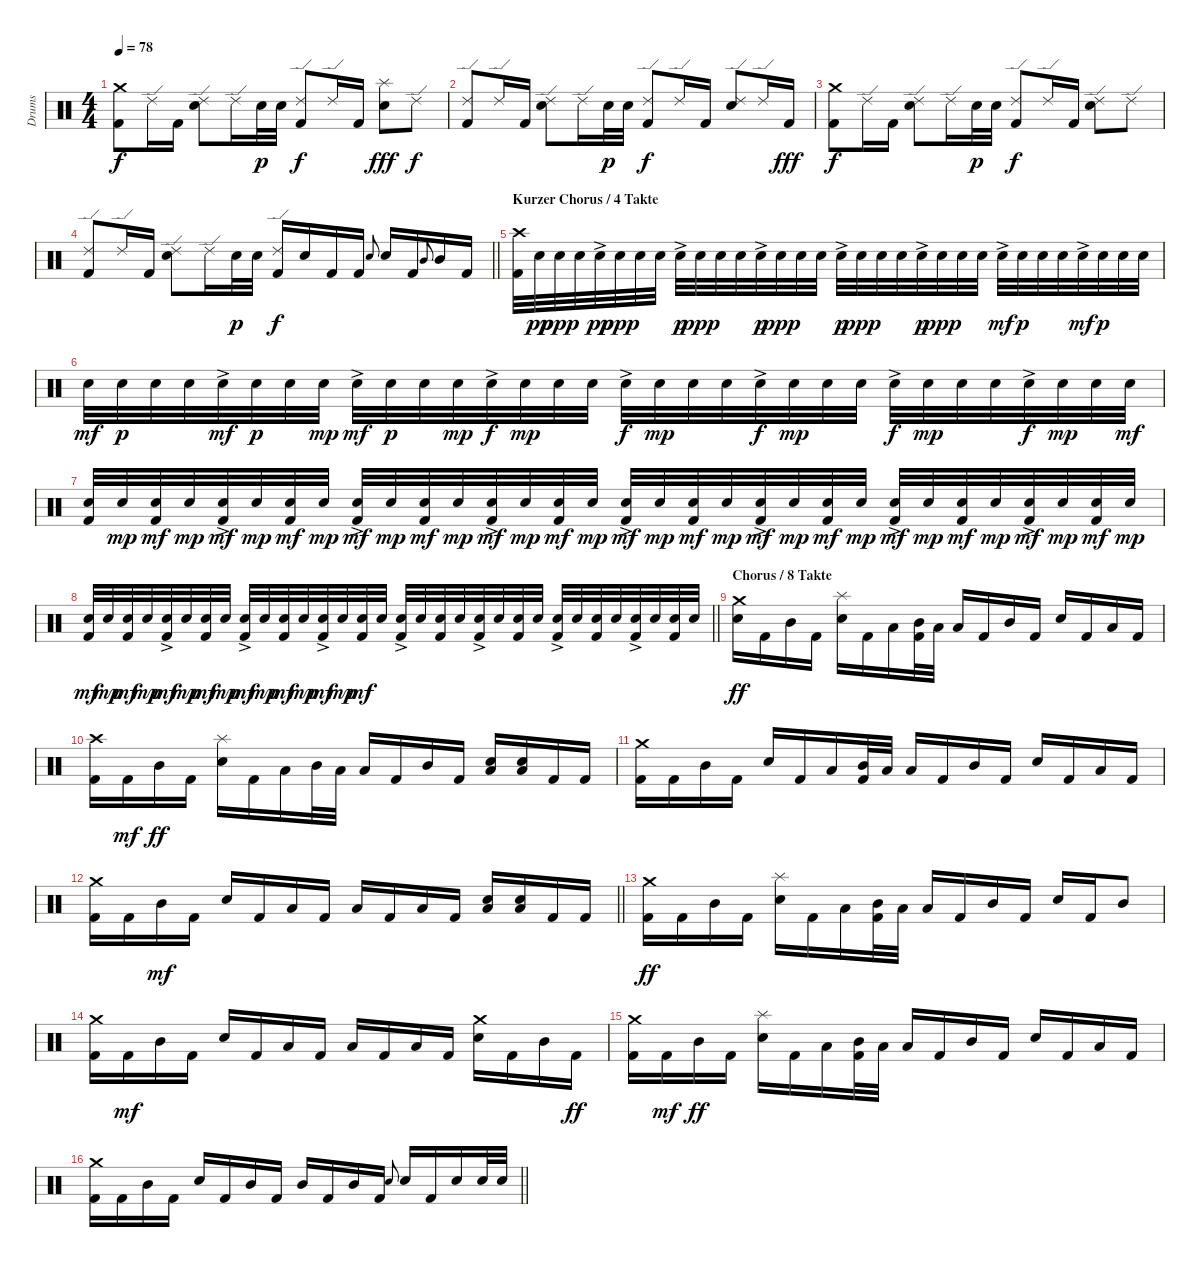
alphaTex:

\track ("Drums" "Drums") {instrument percussion}
\staff {score}
\articulation defaults
\ts (4 4)
\tempo 78
\clef neutral
\ks c
("Crash medium (hit)" "Kick (hit) 2").8{dy f} "Ride (edge) 2".16 "Kick (hit) 2".16 ("Ride (edge) 2" "Electric Snare (hit)").8 "Ride (edge) 2".16 "Electric Snare (hit)".32{dy p} "Electric Snare (hit)".32 ("Ride (edge) 2" "Kick (hit) 2").8{dy f} "Ride (edge) 2".16 "Kick (hit) 2".16 ("Splash (hit)" "Electric Snare (hit)").8{dy fff} "Ride (edge) 2".8{dy f} |
("Ride (edge) 2" "Kick (hit) 2").8 "Ride (edge) 2".16 "Kick (hit) 2".16 ("Ride (edge) 2" "Electric Snare (hit)").8 "Ride (edge) 2".16 "Electric Snare (hit)".32{dy p} "Electric Snare (hit)".32 ("Ride (edge) 2" "Kick (hit) 2").8{dy f} "Ride (edge) 2".16 "Kick (hit) 2".16 ("Ride (edge) 2" "Electric Snare (hit)").8 "Ride (edge) 2".16 "Kick (hit) 2".16{dy fff} |
("Crash medium (hit)" "Kick (hit) 2").8{dy f} "Ride (edge) 2".16 "Kick (hit) 2".16 ("Ride (edge) 2" "Electric Snare (hit)").8 "Ride (edge) 2".16 "Electric Snare (hit)".32{dy p} "Electric Snare (hit)".32 ("Ride (edge) 2" "Kick (hit) 2").8{dy f} "Ride (edge) 2".16 "Kick (hit) 2".16 ("Ride (edge) 2" "Electric Snare (hit)").8 "Ride (edge) 2".8 |
\barLineRight lightlight
("Ride (edge) 2" "Kick (hit) 2").8 "Ride (edge) 2".16 "Kick (hit) 2".16 ("Ride (edge) 2" "Electric Snare (hit)").8 "Ride (edge) 2".16 "Electric Snare (hit)".32{dy p} "Electric Snare (hit)".32 ("Ride (edge) 2" "Kick (hit) 2").16{dy f} "Electric Snare (hit)".16 "Kick (hit) 2".16 "Kick (hit) 2".16 "Electric Snare (hit)".8{gr onbeat} "Electric Snare (hit)".16 "Kick (hit) 2".16 "Mid Tom (hit)".8{gr onbeat} "Mid Tom (hit)".16 "Kick (hit) 2".16 |
\section ("" "Kurzer Chorus / 4 Takte")
("Crash high (hit)" "Kick (hit) 2").32 "Electric Snare (hit)".32{dy pp} "Electric Snare (hit)".32{dy ppp} "Electric Snare (hit)".32 "Electric Snare (hit)"{ac}.32{dy pp} "Electric Snare (hit)".32{dy ppp} "Electric Snare (hit)".32 "Electric Snare (hit)".32 "Electric Snare (hit)"{ac}.32{dy p} "Electric Snare (hit)".32{dy ppp} "Electric Snare (hit)".32 "Electric Snare (hit)".32 "Electric Snare (hit)"{ac}.32{dy p volume 8} "Electric Snare (hit)".32{dy ppp} "Electric Snare (hit)".32 "Electric Snare (hit)".32 "Electric Snare (hit)"{ac}.32{dy p} "Electric Snare (hit)".32{dy ppp} "Electric Snare (hit)".32 "Electric Snare (hit)".32 "Electric Snare (hit)"{ac}.32{dy p} "Electric Snare (hit)".32{dy ppp} "Electric Snare (hit)".32 "Electric Snare (hit)".32 "Electric Snare (hit)"{ac}.32{dy mf} "Electric Snare (hit)".32{dy p} "Electric Snare (hit)".32 "Electric Snare (hit)".32 "Electric Snare (hit)"{ac}.32{dy mf} "Electric Snare (hit)".32{dy p} "Electric Snare (hit)".32 "Electric Snare (hit)".32 |
"Electric Snare (hit)".32{dy mf volume 16} "Electric Snare (hit)".32{dy p} "Electric Snare (hit)".32 "Electric Snare (hit)".32 "Electric Snare (hit)"{ac}.32{dy mf} "Electric Snare (hit)".32{dy p} "Electric Snare (hit)".32 "Electric Snare (hit)".32{dy mp} "Electric Snare (hit)"{ac}.32{dy mf} "Electric Snare (hit)".32{dy p} "Electric Snare (hit)".32 "Electric Snare (hit)".32{dy mp} "Electric Snare (hit)"{ac}.32{dy f} "Electric Snare (hit)".32{dy mp} "Electric Snare (hit)".32 "Electric Snare (hit)".32 "Electric Snare (hit)"{ac}.32{dy f} "Electric Snare (hit)".32{dy mp} "Electric Snare (hit)".32 "Electric Snare (hit)".32 "Electric Snare (hit)"{ac}.32{dy f} "Electric Snare (hit)".32{dy mp} "Electric Snare (hit)".32 "Electric Snare (hit)".32 "Electric Snare (hit)"{ac}.32{dy f} "Electric Snare (hit)".32{dy mp} "Electric Snare (hit)".32 "Electric Snare (hit)".32 "Electric Snare (hit)"{ac}.32{dy f} "Electric Snare (hit)".32{dy mp} "Electric Snare (hit)".32 "Electric Snare (hit)".32{dy mf} |
("Electric Snare (hit)" "Kick (hit) 2").32 "Electric Snare (hit)".32{dy mp} ("Electric Snare (hit)" "Kick (hit) 2").32{dy mf} "Electric Snare (hit)".32{dy mp} ("Electric Snare (hit)"{ac} "Kick (hit) 2").32{dy mf} "Electric Snare (hit)".32{dy mp} ("Electric Snare (hit)" "Kick (hit) 2").32{dy mf} "Electric Snare (hit)".32{dy mp} ("Electric Snare (hit)"{ac} "Kick (hit) 2").32{dy mf} "Electric Snare (hit)".32{dy mp} ("Electric Snare (hit)" "Kick (hit) 2").32{dy mf} "Electric Snare (hit)".32{dy mp} ("Electric Snare (hit)"{ac} "Kick (hit) 2").32{dy mf} "Electric Snare (hit)".32{dy mp} ("Electric Snare (hit)" "Kick (hit) 2").32{dy mf} "Electric Snare (hit)".32{dy mp} ("Electric Snare (hit)"{ac} "Kick (hit) 2").32{dy mf} "Electric Snare (hit)".32{dy mp} ("Electric Snare (hit)" "Kick (hit) 2").32{dy mf} "Electric Snare (hit)".32{dy mp} ("Electric Snare (hit)"{ac} "Kick (hit) 2").32{dy mf} "Electric Snare (hit)".32{dy mp} ("Electric Snare (hit)" "Kick (hit) 2").32{dy mf} "Electric Snare (hit)".32{dy mp} ("Electric Snare (hit)"{ac} "Kick (hit) 2").32{dy mf} "Electric Snare (hit)".32{dy mp} ("Electric Snare (hit)" "Kick (hit) 2").32{dy mf} "Electric Snare (hit)".32{dy mp} ("Electric Snare (hit)"{ac} "Kick (hit) 2").32{dy mf} "Electric Snare (hit)".32{dy mp} ("Electric Snare (hit)" "Kick (hit) 2").32{dy mf} "Electric Snare (hit)".32{dy mp} |
\barLineRight lightlight
("Electric Snare (hit)" "Kick (hit) 2").32{dy mf} "Electric Snare (hit)".32{dy mp} ("Electric Snare (hit)" "Kick (hit) 2").32{dy mf} "Electric Snare (hit)".32{dy mp} ("Electric Snare (hit)"{ac} "Kick (hit) 2").32{dy mf} "Electric Snare (hit)".32{dy mp} ("Electric Snare (hit)" "Kick (hit) 2").32{dy mf} "Electric Snare (hit)".32{dy mp} ("Electric Snare (hit)"{ac} "Kick (hit) 2").32{dy mf} "Electric Snare (hit)".32{dy mp} ("Electric Snare (hit)" "Kick (hit) 2").32{dy mf} "Electric Snare (hit)".32{dy mp} ("Electric Snare (hit)"{ac} "Kick (hit) 2").32{dy mf} "Electric Snare (hit)".32{dy mp} ("Electric Snare (hit)" "Kick (hit) 2").32{dy mf} "Electric Snare (hit)".32 ("Electric Snare (hit)"{ac} "Kick (hit) 2").32 "Electric Snare (hit)".32 ("Electric Snare (hit)" "Kick (hit) 2").32 "Electric Snare (hit)".32 ("Electric Snare (hit)"{ac} "Kick (hit) 2").32 "Electric Snare (hit)".32 ("Electric Snare (hit)" "Kick (hit) 2").32 "Electric Snare (hit)".32 ("Electric Snare (hit)"{ac} "Kick (hit) 2").32 "Electric Snare (hit)".32 ("Electric Snare (hit)" "Kick (hit) 2").32 "Electric Snare (hit)".32 ("Electric Snare (hit)"{ac} "Kick (hit) 2").32 "Electric Snare (hit)".32 ("Electric Snare (hit)" "Kick (hit) 2").32 "Electric Snare (hit)".32 |
\section ("" "Chorus / 8 Takte")
("Crash medium (hit)" "Electric Snare (hit)").16{dy ff} "Kick (hit) 2".16 "Mid Tom (hit)".16 "Kick (hit) 2".16 ("Splash (hit)" "Electric Snare (hit)").16 "Kick (hit) 2".16 "Low Tom (hit)".16 ("Mid Tom (hit)" "Kick (hit) 2").32 "Low Tom (hit)".32 "Low Tom (hit)".16 "Kick (hit) 2".16 "Mid Tom (hit)".16 "Kick (hit) 2".16 "Electric Snare (hit)".16 "Kick (hit) 2".16 "Low Tom (hit)".16 "Kick (hit) 2".16 |
("Crash high (hit)" "Kick (hit) 2").16 "Kick (hit) 2".16{dy mf} "Mid Tom (hit)".16{dy ff} "Kick (hit) 2".16 ("Splash (hit)" "Electric Snare (hit)").16 "Kick (hit) 2".16 "Low Tom (hit)".16 "Mid Tom (hit)".32 "Low Tom (hit)".32 "Low Tom (hit)".16 "Kick (hit) 2".16 "Mid Tom (hit)".16 "Kick (hit) 2".16 ("Low Floor Tom (hit)" "Electric Snare (hit)").16 ("Low Floor Tom (hit)" "Electric Snare (hit)").16 "Kick (hit) 2".16 "Kick (hit) 2".16 |
("Crash medium (hit)" "Kick (hit) 2").16 "Kick (hit) 2".16 "Mid Tom (hit)".16 "Kick (hit) 2".16 "Electric Snare (hit)".16 "Kick (hit) 2".16 "Low Tom (hit)".16 ("Mid Tom (hit)" "Kick (hit) 2").32 "Low Tom (hit)".32 "Low Tom (hit)".16 "Kick (hit) 2".16 "Mid Tom (hit)".16 "Kick (hit) 2".16 "Electric Snare (hit)".16 "Kick (hit) 2".16 "Low Tom (hit)".16 "Kick (hit) 2".16 |
\barLineRight lightlight
("Crash medium (hit)" "Kick (hit) 2").16 "Kick (hit) 2".16 "Mid Tom (hit)".16{dy mf} "Kick (hit) 2".16 "Electric Snare (hit)".16 "Kick (hit) 2".16 "Low Tom (hit)".16 "Kick (hit) 2".16 "Low Tom (hit)".16 "Kick (hit) 2".16 "Low Tom (hit)".16 "Kick (hit) 2".16 ("Electric Snare (hit)" "Low Floor Tom (hit)").16 ("Electric Snare (hit)" "Low Floor Tom (hit)").16 "Kick (hit) 2".16 "Kick (hit) 2".16 |
("Crash medium (hit)" "Kick (hit) 2").16{dy ff} "Kick (hit) 2".16 "Mid Tom (hit)".16 "Kick (hit) 2".16 ("Splash (hit)" "Electric Snare (hit)").16 "Kick (hit) 2".16 "Low Tom (hit)".16 ("Mid Tom (hit)" "Kick (hit) 2").32 "Low Tom (hit)".32 "Low Tom (hit)".16 "Kick (hit) 2".16 "Mid Tom (hit)".16 "Kick (hit) 2".16 "Electric Snare (hit)".16 "Kick (hit) 2".16 "Mid Tom (hit)".8 |
("Crash medium (hit)" "Kick (hit) 2").16 "Kick (hit) 2".16{dy mf} "Mid Tom (hit)".16 "Kick (hit) 2".16 "Electric Snare (hit)".16 "Kick (hit) 2".16 "Low Tom (hit)".16 "Kick (hit) 2".16 "Low Tom (hit)".16 "Kick (hit) 2".16 "Low Tom (hit)".16 "Kick (hit) 2".16 ("Crash medium (hit)" "Electric Snare (hit)").16 "Kick (hit) 2".16 "Mid Tom (hit)".16 "Kick (hit) 2".16{dy ff} |
("Crash medium (hit)" "Kick (hit) 2").16 "Kick (hit) 2".16{dy mf} "Mid Tom (hit)".16{dy ff} "Kick (hit) 2".16 ("Splash (hit)" "Electric Snare (hit)").16 "Kick (hit) 2".16 "Low Tom (hit)".16 ("Mid Tom (hit)" "Kick (hit) 2").32 "Low Tom (hit)".32 "Low Tom (hit)".16 "Kick (hit) 2".16 "Mid Tom (hit)".16 "Kick (hit) 2".16 "Electric Snare (hit)".16 "Kick (hit) 2".16 "Low Tom (hit)".16 "Kick (hit) 2".16 |
\barLineRight lightlight
("Crash medium (hit)" "Kick (hit) 2").16 "Kick (hit) 2".16 "Mid Tom (hit)".16 "Kick (hit) 2".16 "Electric Snare (hit)".16 "Kick (hit) 2".16 "Mid Tom (hit)".16 "Kick (hit) 2".16 "Mid Tom (hit)".16 "Kick (hit) 2".16 "Mid Tom (hit)".16 "Kick (hit) 2".16 "Electric Snare (hit)".8{gr onbeat} "Electric Snare (hit)".16 "Kick (hit) 2".16 "Electric Snare (hit)".16 "Electric Snare (hit)".32 "Electric Snare (hit)".32
